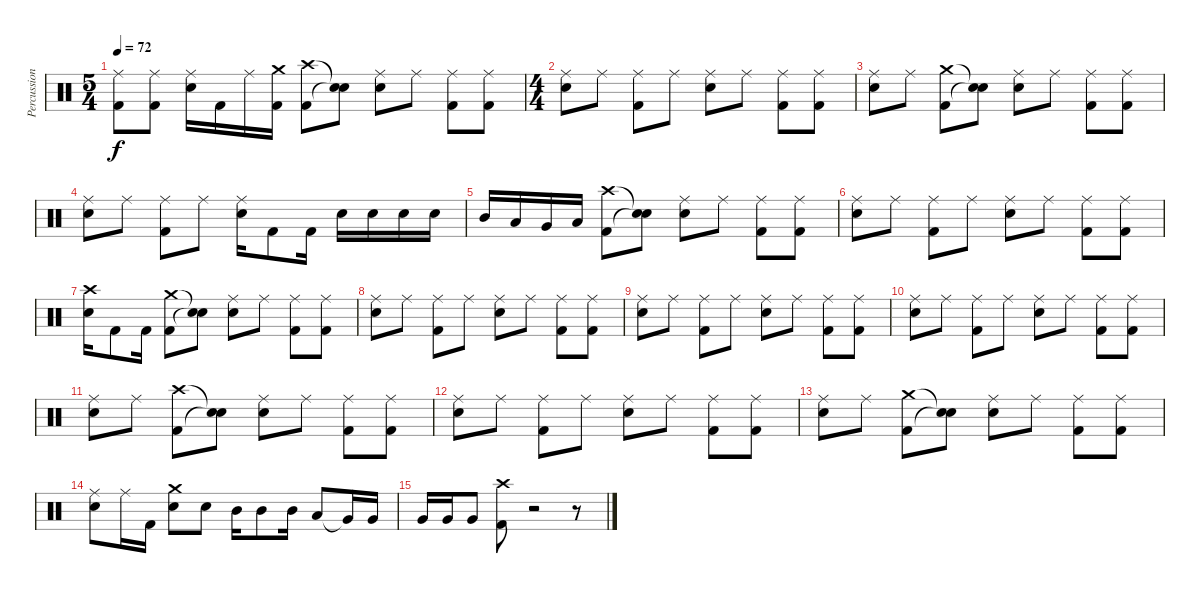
\track ("Percussioni" "Percussion") {instrument percussion}
\staff {score}
\articulation defaults
\ts (5 4)
\tempo 72
\clef neutral
\ks c
("Ride (middle)" "Kick (hit) 2").8{dy f} ("Ride (middle)" "Kick (hit) 2").8 ("Electric Snare (hit)" "Ride (middle)").16 "Kick (hit) 2".16 "Ride (middle)".16 ("Crash medium (hit)" "Kick (hit) 2").16 ("Crash high (hit)" "Kick (hit) 2").8 ("Snare (hit)"{t} "Snare (hit)"{t}).8 ("Electric Snare (hit)" "Ride (middle)").8 "Ride (middle)".8 ("Ride (middle)" "Kick (hit) 2").8 ("Ride (middle)" "Kick (hit) 2").8 |
\ts (4 4)
("Electric Snare (hit)" "Ride (middle)").8 "Ride (middle)".8 ("Ride (middle)" "Kick (hit) 2").8 "Ride (middle)".8 ("Electric Snare (hit)" "Ride (middle)").8 "Ride (middle)".8 ("Ride (middle)" "Kick (hit) 2").8 ("Ride (middle)" "Kick (hit) 2").8 |
("Electric Snare (hit)" "Ride (middle)").8 "Ride (middle)".8 ("Crash medium (hit)" "Kick (hit) 2").8 ("Snare (hit)"{t} "Snare (hit)"{t}).8 ("Electric Snare (hit)" "Ride (middle)").8 "Ride (middle)".8 ("Ride (middle)" "Kick (hit) 2").8 ("Ride (middle)" "Kick (hit) 2").8 |
("Electric Snare (hit)" "Ride (middle)").8 "Ride (middle)".8 ("Ride (middle)" "Kick (hit) 2").8 "Ride (middle)".8 ("Electric Snare (hit)" "Ride (middle)").16 "Kick (hit) 2".8 "Kick (hit) 2".16 "Electric Snare (hit)".16 "Electric Snare (hit)".16 "Electric Snare (hit)".16 "Electric Snare (hit)".16 |
"Mid Tom (hit)".16 "Low Tom (hit)".16 "Very Low Tom (hit)".16 "Low Floor Tom (hit)".16 ("Crash high (hit)" "Kick (hit) 2").8 ("Snare (hit)"{t} "Snare (hit)"{t}).8 ("Electric Snare (hit)" "Ride (middle)").8 "Ride (middle)".8 ("Ride (middle)" "Kick (hit) 2").8 ("Ride (middle)" "Kick (hit) 2").8 |
("Electric Snare (hit)" "Ride (middle)").8 "Ride (middle)".8 ("Ride (middle)" "Kick (hit) 2").8 "Ride (middle)".8 ("Electric Snare (hit)" "Ride (middle)").8 "Ride (middle)".8 ("Ride (middle)" "Kick (hit) 2").8 ("Ride (middle)" "Kick (hit) 2").8 |
("Crash high (hit)" "Electric Snare (hit)").16 "Kick (hit) 2".8 "Kick (hit) 2".16 ("Crash medium (hit)" "Kick (hit) 2").8 ("Snare (hit)"{t} "Snare (hit)"{t}).8 ("Electric Snare (hit)" "Ride (middle)").8 "Ride (middle)".8 ("Ride (middle)" "Kick (hit) 2").8 ("Ride (middle)" "Kick (hit) 2").8 |
("Electric Snare (hit)" "Ride (middle)").8 "Ride (middle)".8 ("Ride (middle)" "Kick (hit) 2").8 "Ride (middle)".8 ("Electric Snare (hit)" "Ride (middle)").8 "Ride (middle)".8 ("Ride (middle)" "Kick (hit) 2").8 ("Ride (middle)" "Kick (hit) 2").8 |
("Electric Snare (hit)" "Ride (middle)").8 "Ride (middle)".8 ("Ride (middle)" "Kick (hit) 2").8 "Ride (middle)".8 ("Electric Snare (hit)" "Ride (middle)").8 "Ride (middle)".8 ("Ride (middle)" "Kick (hit) 2").8 ("Ride (middle)" "Kick (hit) 2").8 |
("Electric Snare (hit)" "Ride (middle)").8 "Ride (middle)".8 ("Ride (middle)" "Kick (hit) 2").8 "Ride (middle)".8 ("Electric Snare (hit)" "Ride (middle)").8 "Ride (middle)".8 ("Ride (middle)" "Kick (hit) 2").8 ("Ride (middle)" "Kick (hit) 2").8 |
("Electric Snare (hit)" "Ride (middle)").8 "Ride (middle)".8 ("Crash high (hit)" "Kick (hit) 2").8 ("Snare (hit)"{t} "Snare (hit)"{t}).8 ("Electric Snare (hit)" "Ride (middle)").8 "Ride (middle)".8 ("Ride (middle)" "Kick (hit) 2").8 ("Ride (middle)" "Kick (hit) 2").8 |
("Electric Snare (hit)" "Ride (middle)").8 "Ride (middle)".8 ("Ride (middle)" "Kick (hit) 2").8 "Ride (middle)".8 ("Electric Snare (hit)" "Ride (middle)").8 "Ride (middle)".8 ("Ride (middle)" "Kick (hit) 2").8 ("Ride (middle)" "Kick (hit) 2").8 |
("Electric Snare (hit)" "Ride (middle)").8 "Ride (middle)".8 ("Crash medium (hit)" "Kick (hit) 2").8 ("Snare (hit)"{t} "Snare (hit)"{t}).8 ("Electric Snare (hit)" "Ride (middle)").8 "Ride (middle)".8 ("Ride (middle)" "Kick (hit) 2").8 ("Ride (middle)" "Kick (hit) 2").8 |
("Electric Snare (hit)" "Ride (middle)").8 "Ride (middle)".16 "Kick (hit) 2".16 ("Crash medium (hit)" "Electric Snare (hit)").8 "Electric Snare (hit)".8 "Mid Tom (hit)".16 "Mid Tom (hit)".8 "Mid Tom (hit)".16 "Low Tom (hit)".8 "Very Low Tom (hit)"{t}.16 "Very Low Tom (hit)".16 |
"Very Low Tom (hit)".16 "Very Low Tom (hit)".16 "Very Low Tom (hit)".8 ("Crash high (hit)" "Kick (hit) 2").8 r.2 r.8
